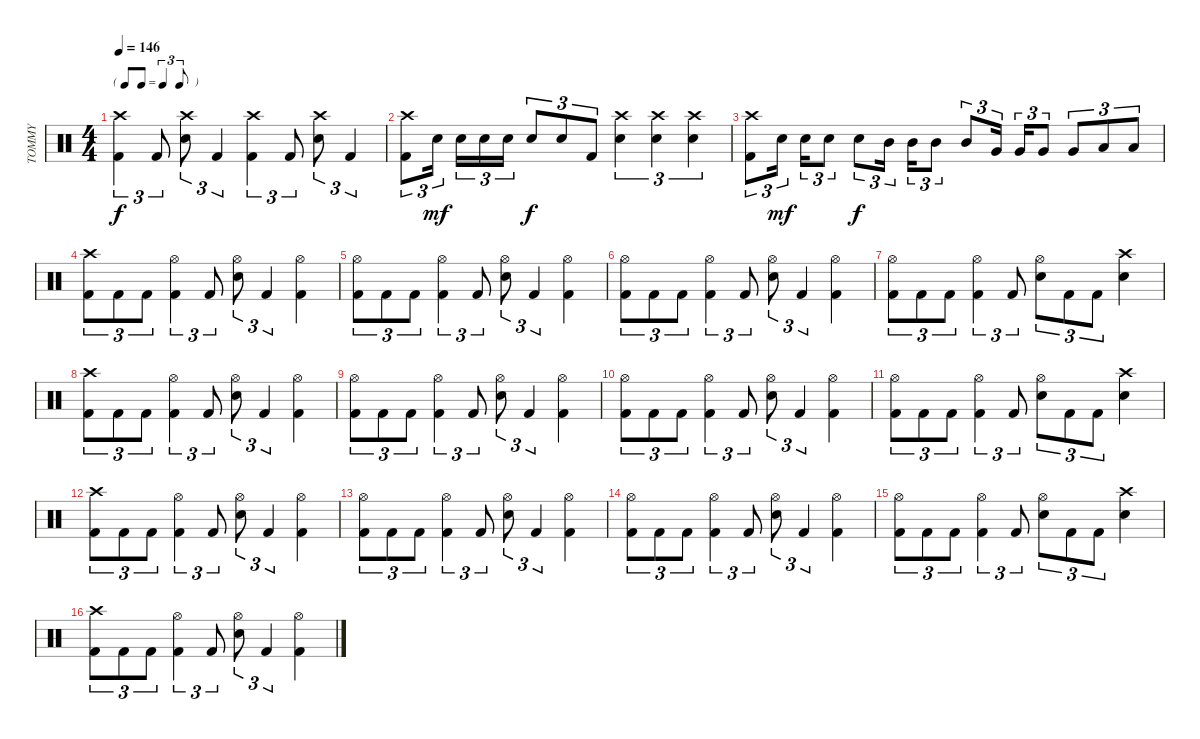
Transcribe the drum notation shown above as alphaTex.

\track ("TOMMY" "TOMMY") {instrument percussion}
\staff {score}
\articulation defaults
\ts (4 4)
\tf triplet8th
\tempo 146
\clef neutral
\ks c
("Kick (hit) 2" "Crash high (hit)").4{tu (3 2) dy f} "Kick (hit) 2".8{tu (3 2)} ("Snare (hit) 2" "Crash high (hit)").8{tu (3 2)} "Kick (hit) 2".4{tu (3 2)} ("Kick (hit) 2" "Crash high (hit)").4{tu (3 2)} "Kick (hit) 2".8{tu (3 2)} ("Snare (hit) 2" "Crash high (hit)").8{tu (3 2)} "Kick (hit) 2".4{tu (3 2)} |
("Kick (hit) 2" "Crash high (hit)").8{tu (3 2)} "Snare (hit) 2".16{tu (3 2) dy mf} "Snare (hit) 2".16{tu (3 2)} "Snare (hit) 2".16{tu (3 2)} "Snare (hit) 2".16{tu (3 2)} "Snare (hit) 2".8{tu (3 2) dy f} "Snare (hit) 2".8{tu (3 2)} "Kick (hit) 2".8{tu (3 2)} ("Snare (hit) 2" "Crash high (hit)").4{tu (3 2)} ("Snare (hit) 2" "Crash high (hit)").4{tu (3 2)} ("Snare (hit) 2" "Crash high (hit)").4{tu (3 2)} |
("Kick (hit) 2" "Crash high (hit)").8{tu (3 2)} "Snare (hit) 2".16{tu (3 2) dy mf} "Snare (hit) 2".16{tu (3 2)} "Snare (hit) 2".8{tu (3 2)} "Snare (hit) 2".8{tu (3 2) dy f} "Mid Tom (hit)".16{tu (3 2)} "Mid Tom (hit)".16{tu (3 2)} "Mid Tom (hit)".8{tu (3 2)} "Mid Tom (hit)".8{tu (3 2)} "Very Low Tom (hit)".16{tu (3 2)} "Very Low Tom (hit)".16{tu (3 2)} "Very Low Tom (hit)".8{tu (3 2)} "Very Low Tom (hit)".8{tu (3 2)} "Low Floor Tom (hit)".8{tu (3 2)} "Low Floor Tom (hit)".8{tu (3 2)} |
("Kick (hit) 2" "Crash high (hit)").8{tu (3 2)} "Kick (hit) 2".8{tu (3 2)} "Kick (hit) 2".8{tu (3 2)} ("Kick (hit) 2" "Hi-Hat (open)").4{tu (3 2)} "Kick (hit) 2".8{tu (3 2)} ("Snare (hit) 2" "Hi-Hat (open)").8{tu (3 2)} "Kick (hit) 2".4{tu (3 2)} ("Kick (hit) 2" "Hi-Hat (open)").4 |
("Kick (hit) 2" "Hi-Hat (open)").8{tu (3 2)} "Kick (hit) 2".8{tu (3 2)} "Kick (hit) 2".8{tu (3 2)} ("Kick (hit) 2" "Hi-Hat (open)").4{tu (3 2)} "Kick (hit) 2".8{tu (3 2)} ("Snare (hit) 2" "Hi-Hat (open)").8{tu (3 2)} "Kick (hit) 2".4{tu (3 2)} ("Kick (hit) 2" "Hi-Hat (open)").4 |
("Kick (hit) 2" "Hi-Hat (open)").8{tu (3 2)} "Kick (hit) 2".8{tu (3 2)} "Kick (hit) 2".8{tu (3 2)} ("Kick (hit) 2" "Hi-Hat (open)").4{tu (3 2)} "Kick (hit) 2".8{tu (3 2)} ("Snare (hit) 2" "Hi-Hat (open)").8{tu (3 2)} "Kick (hit) 2".4{tu (3 2)} ("Kick (hit) 2" "Hi-Hat (open)").4 |
("Kick (hit) 2" "Hi-Hat (open)").8{tu (3 2)} "Kick (hit) 2".8{tu (3 2)} "Kick (hit) 2".8{tu (3 2)} ("Kick (hit) 2" "Hi-Hat (open)").4{tu (3 2)} "Kick (hit) 2".8{tu (3 2)} ("Snare (hit) 2" "Hi-Hat (open)").8{tu (3 2)} "Kick (hit) 2".8{tu (3 2)} "Kick (hit) 2".8{tu (3 2)} ("Snare (hit) 2" "Crash high (hit)").4 |
("Kick (hit) 2" "Crash high (hit)").8{tu (3 2)} "Kick (hit) 2".8{tu (3 2)} "Kick (hit) 2".8{tu (3 2)} ("Kick (hit) 2" "Hi-Hat (open)").4{tu (3 2)} "Kick (hit) 2".8{tu (3 2)} ("Snare (hit) 2" "Hi-Hat (open)").8{tu (3 2)} "Kick (hit) 2".4{tu (3 2)} ("Kick (hit) 2" "Hi-Hat (open)").4 |
("Kick (hit) 2" "Hi-Hat (open)").8{tu (3 2)} "Kick (hit) 2".8{tu (3 2)} "Kick (hit) 2".8{tu (3 2)} ("Kick (hit) 2" "Hi-Hat (open)").4{tu (3 2)} "Kick (hit) 2".8{tu (3 2)} ("Snare (hit) 2" "Hi-Hat (open)").8{tu (3 2)} "Kick (hit) 2".4{tu (3 2)} ("Kick (hit) 2" "Hi-Hat (open)").4 |
("Kick (hit) 2" "Hi-Hat (open)").8{tu (3 2)} "Kick (hit) 2".8{tu (3 2)} "Kick (hit) 2".8{tu (3 2)} ("Kick (hit) 2" "Hi-Hat (open)").4{tu (3 2)} "Kick (hit) 2".8{tu (3 2)} ("Snare (hit) 2" "Hi-Hat (open)").8{tu (3 2)} "Kick (hit) 2".4{tu (3 2)} ("Kick (hit) 2" "Hi-Hat (open)").4 |
("Kick (hit) 2" "Hi-Hat (open)").8{tu (3 2)} "Kick (hit) 2".8{tu (3 2)} "Kick (hit) 2".8{tu (3 2)} ("Kick (hit) 2" "Hi-Hat (open)").4{tu (3 2)} "Kick (hit) 2".8{tu (3 2)} ("Snare (hit) 2" "Hi-Hat (open)").8{tu (3 2)} "Kick (hit) 2".8{tu (3 2)} "Kick (hit) 2".8{tu (3 2)} ("Snare (hit) 2" "Crash high (hit)").4 |
("Kick (hit) 2" "Crash high (hit)").8{tu (3 2)} "Kick (hit) 2".8{tu (3 2)} "Kick (hit) 2".8{tu (3 2)} ("Kick (hit) 2" "Hi-Hat (open)").4{tu (3 2)} "Kick (hit) 2".8{tu (3 2)} ("Snare (hit) 2" "Hi-Hat (open)").8{tu (3 2)} "Kick (hit) 2".4{tu (3 2)} ("Kick (hit) 2" "Hi-Hat (open)").4 |
("Kick (hit) 2" "Hi-Hat (open)").8{tu (3 2)} "Kick (hit) 2".8{tu (3 2)} "Kick (hit) 2".8{tu (3 2)} ("Kick (hit) 2" "Hi-Hat (open)").4{tu (3 2)} "Kick (hit) 2".8{tu (3 2)} ("Snare (hit) 2" "Hi-Hat (open)").8{tu (3 2)} "Kick (hit) 2".4{tu (3 2)} ("Kick (hit) 2" "Hi-Hat (open)").4 |
("Kick (hit) 2" "Hi-Hat (open)").8{tu (3 2)} "Kick (hit) 2".8{tu (3 2)} "Kick (hit) 2".8{tu (3 2)} ("Kick (hit) 2" "Hi-Hat (open)").4{tu (3 2)} "Kick (hit) 2".8{tu (3 2)} ("Snare (hit) 2" "Hi-Hat (open)").8{tu (3 2)} "Kick (hit) 2".4{tu (3 2)} ("Kick (hit) 2" "Hi-Hat (open)").4 |
("Kick (hit) 2" "Hi-Hat (open)").8{tu (3 2)} "Kick (hit) 2".8{tu (3 2)} "Kick (hit) 2".8{tu (3 2)} ("Kick (hit) 2" "Hi-Hat (open)").4{tu (3 2)} "Kick (hit) 2".8{tu (3 2)} ("Snare (hit) 2" "Hi-Hat (open)").8{tu (3 2)} "Kick (hit) 2".8{tu (3 2)} "Kick (hit) 2".8{tu (3 2)} ("Snare (hit) 2" "Crash high (hit)").4 |
("Kick (hit) 2" "Crash high (hit)").8{tu (3 2)} "Kick (hit) 2".8{tu (3 2)} "Kick (hit) 2".8{tu (3 2)} ("Kick (hit) 2" "Hi-Hat (open)").4{tu (3 2)} "Kick (hit) 2".8{tu (3 2)} ("Snare (hit) 2" "Hi-Hat (open)").8{tu (3 2)} "Kick (hit) 2".4{tu (3 2)} ("Kick (hit) 2" "Hi-Hat (open)").4
